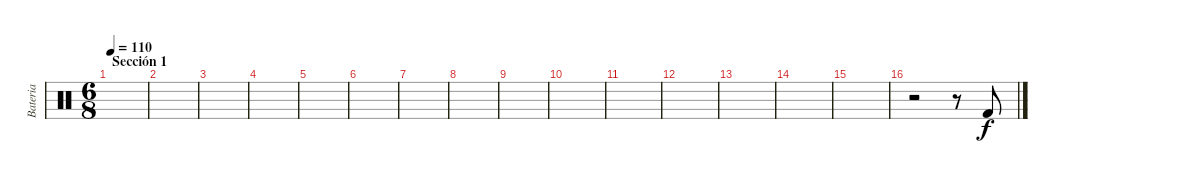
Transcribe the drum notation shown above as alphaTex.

\track ("Bateria" "Bateria") {instrument percussion}
\staff {score}
\articulation defaults
\ts (6 8)
\section ("" "Sección 1")
\tempo 110
\clef neutral
\ks c
|
|
|
|
|
|
|
|
|
|
|
|
|
|
|
r.2 r.8 "Kick (hit) 2".8
